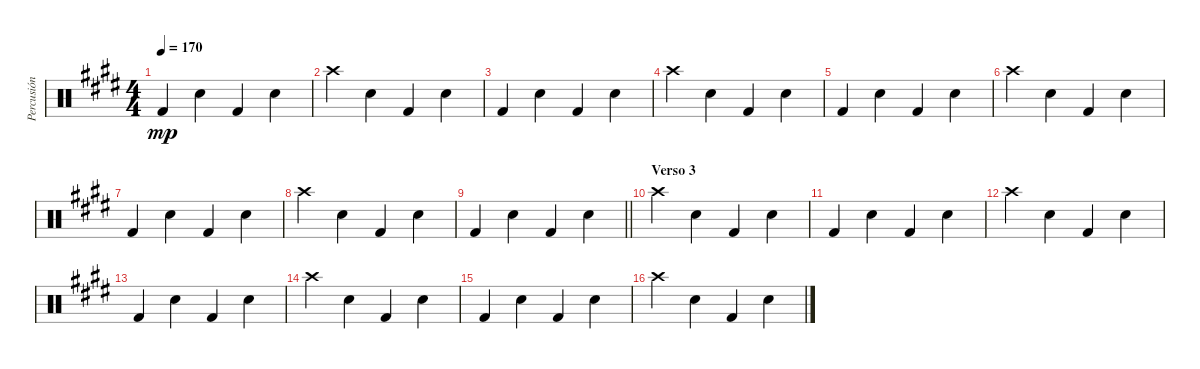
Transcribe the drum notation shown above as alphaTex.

\track ("Percusión" "Percusión") {instrument percussion}
\staff {score}
\articulation defaults
\ts (4 4)
\tempo 170
\clef neutral
\ks e "Kick (hit) 2".4{dy mp} "Snare (hit) 2".4 "Kick (hit) 2".4 "Snare (hit) 2".4
|
"Crash high (hit)".4 "Snare (hit) 2".4 "Kick (hit) 2".4 "Snare (hit) 2".4 |
"Kick (hit) 2".4 "Snare (hit) 2".4 "Kick (hit) 2".4 "Snare (hit) 2".4 |
"Crash high (hit)".4 "Snare (hit) 2".4 "Kick (hit) 2".4 "Snare (hit) 2".4 |
"Kick (hit) 2".4 "Snare (hit) 2".4 "Kick (hit) 2".4 "Snare (hit) 2".4 |
"Crash high (hit)".4 "Snare (hit) 2".4 "Kick (hit) 2".4 "Snare (hit) 2".4 |
"Kick (hit) 2".4 "Snare (hit) 2".4 "Kick (hit) 2".4 "Snare (hit) 2".4 |
"Crash high (hit)".4 "Snare (hit) 2".4 "Kick (hit) 2".4 "Snare (hit) 2".4 |
\barLineRight lightlight "Kick (hit) 2".4 "Snare (hit) 2".4 "Kick (hit) 2".4 "Snare (hit) 2".4
|
\section ("" "Verso 3")
"Crash high (hit)".4 "Snare (hit) 2".4 "Kick (hit) 2".4 "Snare (hit) 2".4 |
"Kick (hit) 2".4 "Snare (hit) 2".4 "Kick (hit) 2".4 "Snare (hit) 2".4 |
"Crash high (hit)".4 "Snare (hit) 2".4 "Kick (hit) 2".4 "Snare (hit) 2".4 |
"Kick (hit) 2".4 "Snare (hit) 2".4 "Kick (hit) 2".4 "Snare (hit) 2".4 |
"Crash high (hit)".4 "Snare (hit) 2".4 "Kick (hit) 2".4 "Snare (hit) 2".4 |
"Kick (hit) 2".4 "Snare (hit) 2".4 "Kick (hit) 2".4 "Snare (hit) 2".4 |
"Crash high (hit)".4 "Snare (hit) 2".4 "Kick (hit) 2".4 "Snare (hit) 2".4
